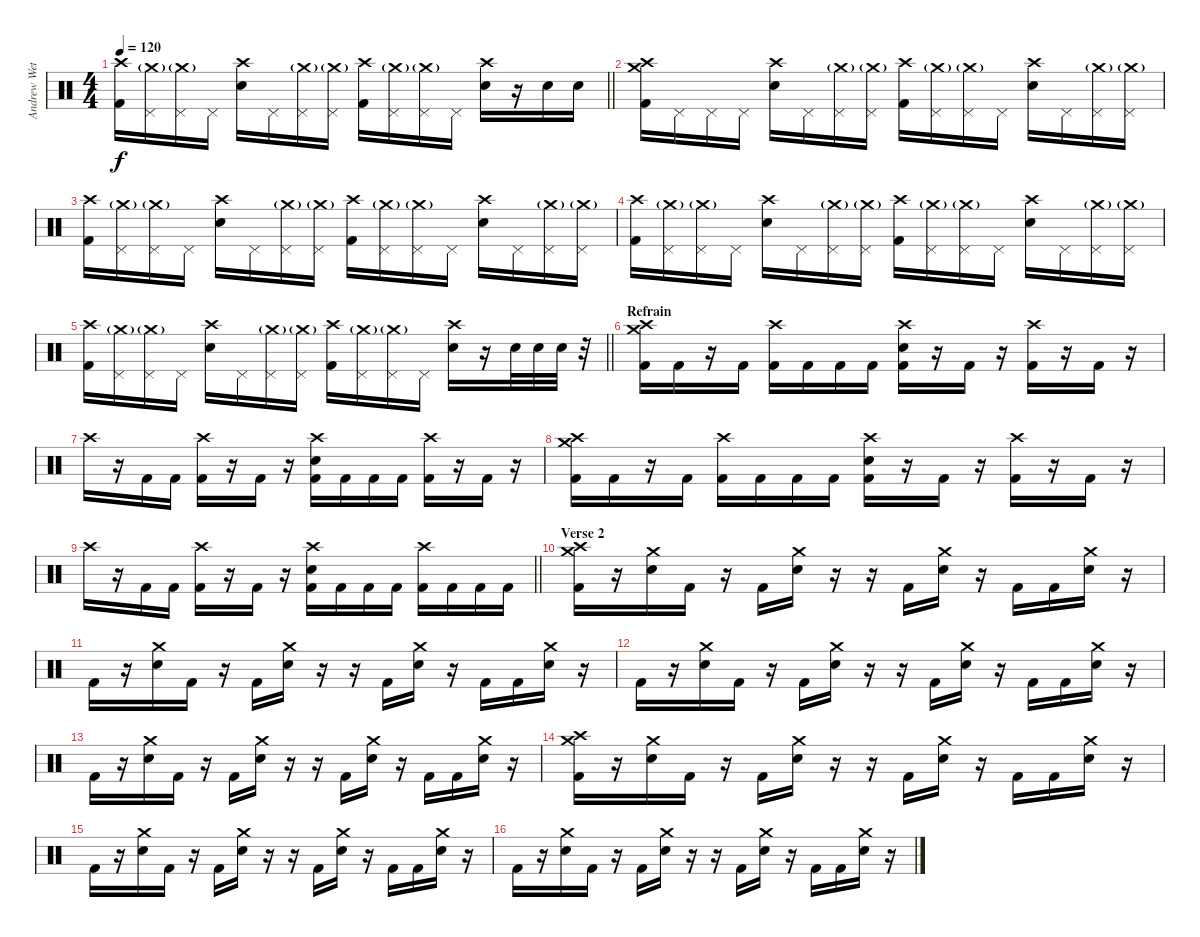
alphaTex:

\track ("Andrew Wetzel - Drums" "Andrew Wet") {instrument percussion}
\staff {score}
\articulation defaults
\ts (4 4)
\tempo 120
\clef neutral
\barLineRight lightlight
\ks c
("Crash high (hit)" "Kick (hit) 2").16{dy f} ("Pedal Hi-Hat (hit)" "Crash medium (hit)"{g}).16 ("Pedal Hi-Hat (hit)" "Crash medium (hit)"{g}).16 "Pedal Hi-Hat (hit)".16 ("Crash high (hit)" "Electric Snare (hit)").16 "Pedal Hi-Hat (hit)".16 ("Pedal Hi-Hat (hit)" "Crash medium (hit)"{g}).16 ("Pedal Hi-Hat (hit)" "Crash medium (hit)"{g}).16 ("Crash high (hit)" "Kick (hit) 2").16 ("Pedal Hi-Hat (hit)" "Crash medium (hit)"{g}).16 ("Pedal Hi-Hat (hit)" "Crash medium (hit)"{g}).16 "Pedal Hi-Hat (hit)".16 ("Crash high (hit)" "Electric Snare (hit)").16 r.16 "Electric Snare (hit)".16 "Electric Snare (hit)".16 |
("Crash high (hit)" "Crash medium (hit)" "Kick (hit) 2").16 "Pedal Hi-Hat (hit)".16 "Pedal Hi-Hat (hit)".16 "Pedal Hi-Hat (hit)".16 ("Crash high (hit)" "Electric Snare (hit)").16 "Pedal Hi-Hat (hit)".16 ("Pedal Hi-Hat (hit)" "Crash medium (hit)"{g}).16 ("Pedal Hi-Hat (hit)" "Crash medium (hit)"{g}).16 ("Crash high (hit)" "Kick (hit) 2").16 ("Pedal Hi-Hat (hit)" "Crash medium (hit)"{g}).16 ("Pedal Hi-Hat (hit)" "Crash medium (hit)"{g}).16 "Pedal Hi-Hat (hit)".16 ("Crash high (hit)" "Electric Snare (hit)").16 "Pedal Hi-Hat (hit)".16 ("Pedal Hi-Hat (hit)" "Crash medium (hit)"{g}).16 ("Pedal Hi-Hat (hit)" "Crash medium (hit)"{g}).16 |
("Crash high (hit)" "Kick (hit) 2").16 ("Pedal Hi-Hat (hit)" "Crash medium (hit)"{g}).16 ("Pedal Hi-Hat (hit)" "Crash medium (hit)"{g}).16 "Pedal Hi-Hat (hit)".16 ("Crash high (hit)" "Electric Snare (hit)").16 "Pedal Hi-Hat (hit)".16 ("Pedal Hi-Hat (hit)" "Crash medium (hit)"{g}).16 ("Pedal Hi-Hat (hit)" "Crash medium (hit)"{g}).16 ("Crash high (hit)" "Kick (hit) 2").16 ("Pedal Hi-Hat (hit)" "Crash medium (hit)"{g}).16 ("Pedal Hi-Hat (hit)" "Crash medium (hit)"{g}).16 "Pedal Hi-Hat (hit)".16 ("Crash high (hit)" "Electric Snare (hit)").16 "Pedal Hi-Hat (hit)".16 ("Pedal Hi-Hat (hit)" "Crash medium (hit)"{g}).16 ("Pedal Hi-Hat (hit)" "Crash medium (hit)"{g}).16 |
("Crash high (hit)" "Kick (hit) 2").16 ("Pedal Hi-Hat (hit)" "Crash medium (hit)"{g}).16 ("Pedal Hi-Hat (hit)" "Crash medium (hit)"{g}).16 "Pedal Hi-Hat (hit)".16 ("Crash high (hit)" "Electric Snare (hit)").16 "Pedal Hi-Hat (hit)".16 ("Pedal Hi-Hat (hit)" "Crash medium (hit)"{g}).16 ("Pedal Hi-Hat (hit)" "Crash medium (hit)"{g}).16 ("Crash high (hit)" "Kick (hit) 2").16 ("Pedal Hi-Hat (hit)" "Crash medium (hit)"{g}).16 ("Pedal Hi-Hat (hit)" "Crash medium (hit)"{g}).16 "Pedal Hi-Hat (hit)".16 ("Crash high (hit)" "Electric Snare (hit)").16 "Pedal Hi-Hat (hit)".16 ("Pedal Hi-Hat (hit)" "Crash medium (hit)"{g}).16 ("Pedal Hi-Hat (hit)" "Crash medium (hit)"{g}).16 |
\barLineRight lightlight
("Crash high (hit)" "Kick (hit) 2").16 ("Pedal Hi-Hat (hit)" "Crash medium (hit)"{g}).16 ("Pedal Hi-Hat (hit)" "Crash medium (hit)"{g}).16 "Pedal Hi-Hat (hit)".16 ("Crash high (hit)" "Electric Snare (hit)").16 "Pedal Hi-Hat (hit)".16 ("Pedal Hi-Hat (hit)" "Crash medium (hit)"{g}).16 ("Pedal Hi-Hat (hit)" "Crash medium (hit)"{g}).16 ("Crash high (hit)" "Kick (hit) 2").16 ("Pedal Hi-Hat (hit)" "Crash medium (hit)"{g}).16 ("Pedal Hi-Hat (hit)" "Crash medium (hit)"{g}).16 "Pedal Hi-Hat (hit)".16 ("Crash high (hit)" "Electric Snare (hit)").16 r.16 "Electric Snare (hit)".32 "Electric Snare (hit)".32 "Electric Snare (hit)".32 r.32 |
\section ("" "Refrain")
("Crash high (hit)" "Crash medium (hit)" "Kick (hit) 2").16{volume 13} "Kick (hit) 2".16 r.16 "Kick (hit) 2".16 ("Crash high (hit)" "Kick (hit) 2").16 "Kick (hit) 2".16 "Kick (hit) 2".16 "Kick (hit) 2".16 ("Crash high (hit)" "Electric Snare (hit)" "Kick (hit) 2").16 r.16 "Kick (hit) 2".16 r.16 ("Crash high (hit)" "Kick (hit) 2").16 r.16 "Kick (hit) 2".16 r.16 |
"Crash high (hit)".16 r.16 "Kick (hit) 2".16 "Kick (hit) 2".16 ("Crash high (hit)" "Kick (hit) 2").16 r.16 "Kick (hit) 2".16 r.16 ("Crash high (hit)" "Electric Snare (hit)" "Kick (hit) 2").16 "Kick (hit) 2".16 "Kick (hit) 2".16 "Kick (hit) 2".16 ("Crash high (hit)" "Kick (hit) 2").16 r.16 "Kick (hit) 2".16 r.16 |
("Crash high (hit)" "Crash medium (hit)" "Kick (hit) 2").16 "Kick (hit) 2".16 r.16 "Kick (hit) 2".16 ("Crash high (hit)" "Kick (hit) 2").16 "Kick (hit) 2".16 "Kick (hit) 2".16 "Kick (hit) 2".16 ("Crash high (hit)" "Electric Snare (hit)" "Kick (hit) 2").16 r.16 "Kick (hit) 2".16 r.16 ("Crash high (hit)" "Kick (hit) 2").16 r.16 "Kick (hit) 2".16 r.16 |
\barLineRight lightlight "Crash high (hit)".16
r.16 "Kick (hit) 2".16 "Kick (hit) 2".16 ("Crash high (hit)" "Kick (hit) 2").16 r.16 "Kick (hit) 2".16 r.16 ("Crash high (hit)" "Electric Snare (hit)" "Kick (hit) 2").16 "Kick (hit) 2".16 "Kick (hit) 2".16 "Kick (hit) 2".16 ("Crash high (hit)" "Kick (hit) 2").16 "Kick (hit) 2".16 "Kick (hit) 2".16 "Kick (hit) 2".16 |
\section ("" "Verse 2")
("Crash high (hit)" "Crash medium (hit)" "Kick (hit) 2").16 r.16 ("Crash medium (hit)" "Electric Snare (hit)").16 "Kick (hit) 2".16 r.16 "Kick (hit) 2".16 ("Crash medium (hit)" "Electric Snare (hit)").16 r.16 r.16 "Kick (hit) 2".16 ("Crash medium (hit)" "Electric Snare (hit)").16 r.16 "Kick (hit) 2".16 "Kick (hit) 2".16 ("Crash medium (hit)" "Electric Snare (hit)").16 r.16 |
"Kick (hit) 2".16 r.16 ("Crash medium (hit)" "Electric Snare (hit)").16 "Kick (hit) 2".16 r.16 "Kick (hit) 2".16 ("Crash medium (hit)" "Electric Snare (hit)").16 r.16 r.16 "Kick (hit) 2".16 ("Crash medium (hit)" "Electric Snare (hit)").16 r.16 "Kick (hit) 2".16 "Kick (hit) 2".16 ("Crash medium (hit)" "Electric Snare (hit)").16 r.16 |
"Kick (hit) 2".16 r.16 ("Crash medium (hit)" "Electric Snare (hit)").16 "Kick (hit) 2".16 r.16 "Kick (hit) 2".16 ("Crash medium (hit)" "Electric Snare (hit)").16 r.16 r.16 "Kick (hit) 2".16 ("Crash medium (hit)" "Electric Snare (hit)").16 r.16 "Kick (hit) 2".16 "Kick (hit) 2".16 ("Crash medium (hit)" "Electric Snare (hit)").16 r.16 |
"Kick (hit) 2".16 r.16 ("Crash medium (hit)" "Electric Snare (hit)").16 "Kick (hit) 2".16 r.16 "Kick (hit) 2".16 ("Crash medium (hit)" "Electric Snare (hit)").16 r.16 r.16 "Kick (hit) 2".16 ("Crash medium (hit)" "Electric Snare (hit)").16 r.16 "Kick (hit) 2".16 "Kick (hit) 2".16 ("Crash medium (hit)" "Electric Snare (hit)").16 r.16 |
("Crash high (hit)" "Crash medium (hit)" "Kick (hit) 2").16 r.16 ("Crash medium (hit)" "Electric Snare (hit)").16 "Kick (hit) 2".16 r.16 "Kick (hit) 2".16 ("Crash medium (hit)" "Electric Snare (hit)").16 r.16 r.16 "Kick (hit) 2".16 ("Crash medium (hit)" "Electric Snare (hit)").16 r.16 "Kick (hit) 2".16 "Kick (hit) 2".16 ("Crash medium (hit)" "Electric Snare (hit)").16 r.16 |
"Kick (hit) 2".16 r.16 ("Crash medium (hit)" "Electric Snare (hit)").16 "Kick (hit) 2".16 r.16 "Kick (hit) 2".16 ("Crash medium (hit)" "Electric Snare (hit)").16 r.16 r.16 "Kick (hit) 2".16 ("Crash medium (hit)" "Electric Snare (hit)").16 r.16 "Kick (hit) 2".16 "Kick (hit) 2".16 ("Crash medium (hit)" "Electric Snare (hit)").16 r.16 |
"Kick (hit) 2".16 r.16 ("Crash medium (hit)" "Electric Snare (hit)").16 "Kick (hit) 2".16 r.16 "Kick (hit) 2".16 ("Crash medium (hit)" "Electric Snare (hit)").16 r.16 r.16 "Kick (hit) 2".16 ("Crash medium (hit)" "Electric Snare (hit)").16 r.16 "Kick (hit) 2".16 "Kick (hit) 2".16 ("Crash medium (hit)" "Electric Snare (hit)").16 r.16
